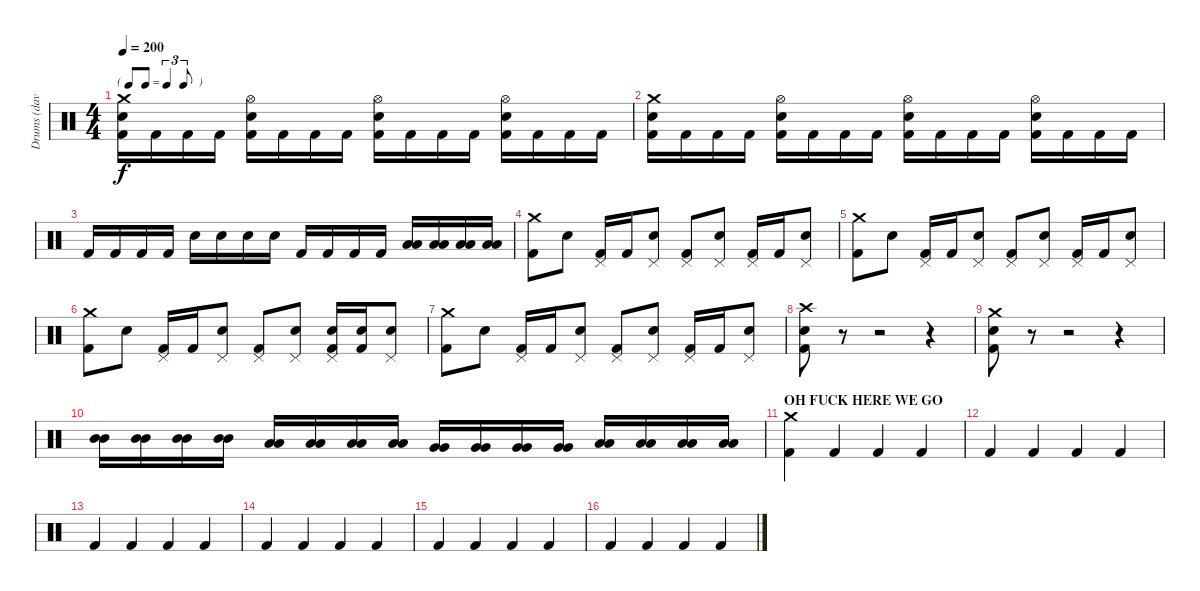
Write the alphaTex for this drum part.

\track ("Drums (dave)" "Drums (dav") {instrument percussion}
\staff {score}
\articulation defaults
\ts (4 4)
\tf triplet8th
\tempo 200
\clef neutral
\ks c
("Crash medium (hit)" "Snare (hit) 2" "Kick (hit) 2").16{dy f} "Kick (hit) 2".16 "Kick (hit) 2".16 "Kick (hit) 2".16 ("Hi-Hat (open)" "Snare (hit) 2" "Kick (hit) 2").16 "Kick (hit) 2".16 "Kick (hit) 2".16 "Kick (hit) 2".16 ("Hi-Hat (open)" "Snare (hit) 2" "Kick (hit) 2").16 "Kick (hit) 2".16 "Kick (hit) 2".16 "Kick (hit) 2".16 ("Hi-Hat (open)" "Snare (hit) 2" "Kick (hit) 2").16 "Kick (hit) 2".16 "Kick (hit) 2".16 "Kick (hit) 2".16 |
("Crash medium (hit)" "Snare (hit) 2" "Kick (hit) 2").16 "Kick (hit) 2".16 "Kick (hit) 2".16 "Kick (hit) 2".16 ("Hi-Hat (open)" "Snare (hit) 2" "Kick (hit) 2").16 "Kick (hit) 2".16 "Kick (hit) 2".16 "Kick (hit) 2".16 ("Hi-Hat (open)" "Snare (hit) 2" "Kick (hit) 2").16 "Kick (hit) 2".16 "Kick (hit) 2".16 "Kick (hit) 2".16 ("Hi-Hat (open)" "Snare (hit) 2" "Kick (hit) 2").16 "Kick (hit) 2".16 "Kick (hit) 2".16 "Kick (hit) 2".16 |
"Kick (hit) 2".16 "Kick (hit) 2".16 "Kick (hit) 2".16 "Kick (hit) 2".16 "Snare (hit) 2".16 "Snare (hit) 2".16 "Snare (hit) 2".16 "Snare (hit) 2".16 "Kick (hit) 2".16 "Kick (hit) 2".16 "Kick (hit) 2".16 "Kick (hit) 2".16 ("Low Floor Tom (hit)" "Low Floor Tom (hit)").16 ("Low Floor Tom (hit)" "Low Floor Tom (hit)").16 ("Low Floor Tom (hit)" "Low Floor Tom (hit)").16 ("Low Floor Tom (hit)" "Low Floor Tom (hit)").16 |
("Crash medium (hit)" "Kick (hit) 2").8 "Snare (hit) 2".8 ("Pedal Hi-Hat (hit)" "Kick (hit) 2").16 "Kick (hit) 2".16 ("Pedal Hi-Hat (hit)" "Snare (hit) 2").8 ("Pedal Hi-Hat (hit)" "Kick (hit) 2").8 ("Pedal Hi-Hat (hit)" "Snare (hit) 2").8 ("Pedal Hi-Hat (hit)" "Kick (hit) 2").16 "Kick (hit) 2".16 ("Pedal Hi-Hat (hit)" "Snare (hit) 2").8 |
("Crash medium (hit)" "Kick (hit) 2").8 "Snare (hit) 2".8 ("Pedal Hi-Hat (hit)" "Kick (hit) 2").16 "Kick (hit) 2".16 ("Pedal Hi-Hat (hit)" "Snare (hit) 2").8 ("Pedal Hi-Hat (hit)" "Kick (hit) 2").8 ("Pedal Hi-Hat (hit)" "Snare (hit) 2").8 ("Pedal Hi-Hat (hit)" "Kick (hit) 2").16 "Kick (hit) 2".16 ("Pedal Hi-Hat (hit)" "Snare (hit) 2").8 |
("Crash medium (hit)" "Kick (hit) 2").8 "Snare (hit) 2".8 ("Pedal Hi-Hat (hit)" "Kick (hit) 2").16 "Kick (hit) 2".16 ("Pedal Hi-Hat (hit)" "Snare (hit) 2").8 ("Pedal Hi-Hat (hit)" "Kick (hit) 2").8 ("Pedal Hi-Hat (hit)" "Snare (hit) 2").8 ("Pedal Hi-Hat (hit)" "Snare (hit) 2" "Kick (hit) 2").16 ("Snare (hit) 2" "Kick (hit) 2").16 ("Pedal Hi-Hat (hit)" "Snare (hit) 2").8 |
("Crash medium (hit)" "Kick (hit) 2").8 "Snare (hit) 2".8 ("Pedal Hi-Hat (hit)" "Kick (hit) 2").16 "Kick (hit) 2".16 ("Pedal Hi-Hat (hit)" "Snare (hit) 2").8 ("Pedal Hi-Hat (hit)" "Kick (hit) 2").8 ("Pedal Hi-Hat (hit)" "Snare (hit) 2").8 ("Pedal Hi-Hat (hit)" "Kick (hit) 2").16 "Kick (hit) 2".16 ("Pedal Hi-Hat (hit)" "Snare (hit) 2").8 |
("Crash high (hit)" "Snare (hit) 2" "Kick (hit) 2").8 r.8 r.2 r.4 |
("Crash medium (hit)" "Snare (hit) 2" "Kick (hit) 2").8 r.8 r.2 r.4 |
("Mid Tom (hit)" "Mid Tom (hit)").16 ("Mid Tom (hit)" "Mid Tom (hit)").16 ("Mid Tom (hit)" "Mid Tom (hit)").16 ("Mid Tom (hit)" "Mid Tom (hit)").16 ("Low Tom (hit)" "Low Tom (hit)").16 ("Low Tom (hit)" "Low Tom (hit)").16 ("Low Tom (hit)" "Low Tom (hit)").16 ("Low Tom (hit)" "Low Tom (hit)").16 ("Very Low Tom (hit)" "Very Low Tom (hit)").16 ("Very Low Tom (hit)" "Very Low Tom (hit)").16 ("Very Low Tom (hit)" "Very Low Tom (hit)").16 ("Very Low Tom (hit)" "Very Low Tom (hit)").16 ("Low Floor Tom (hit)" "Low Floor Tom (hit)").16 ("Low Floor Tom (hit)" "Low Floor Tom (hit)").16 ("Low Floor Tom (hit)" "Low Floor Tom (hit)").16 ("Low Floor Tom (hit)" "Low Floor Tom (hit)").16 |
\section ("" "OH FUCK HERE WE GO")
("Crash medium (hit)" "Kick (hit) 2").4 "Kick (hit) 2".4 "Kick (hit) 2".4 "Kick (hit) 2".4 |
"Kick (hit) 2".4 "Kick (hit) 2".4 "Kick (hit) 2".4 "Kick (hit) 2".4 |
"Kick (hit) 2".4 "Kick (hit) 2".4 "Kick (hit) 2".4 "Kick (hit) 2".4 |
"Kick (hit) 2".4 "Kick (hit) 2".4 "Kick (hit) 2".4 "Kick (hit) 2".4 |
"Kick (hit) 2".4 "Kick (hit) 2".4 "Kick (hit) 2".4 "Kick (hit) 2".4 |
"Kick (hit) 2".4 "Kick (hit) 2".4 "Kick (hit) 2".4 "Kick (hit) 2".4
